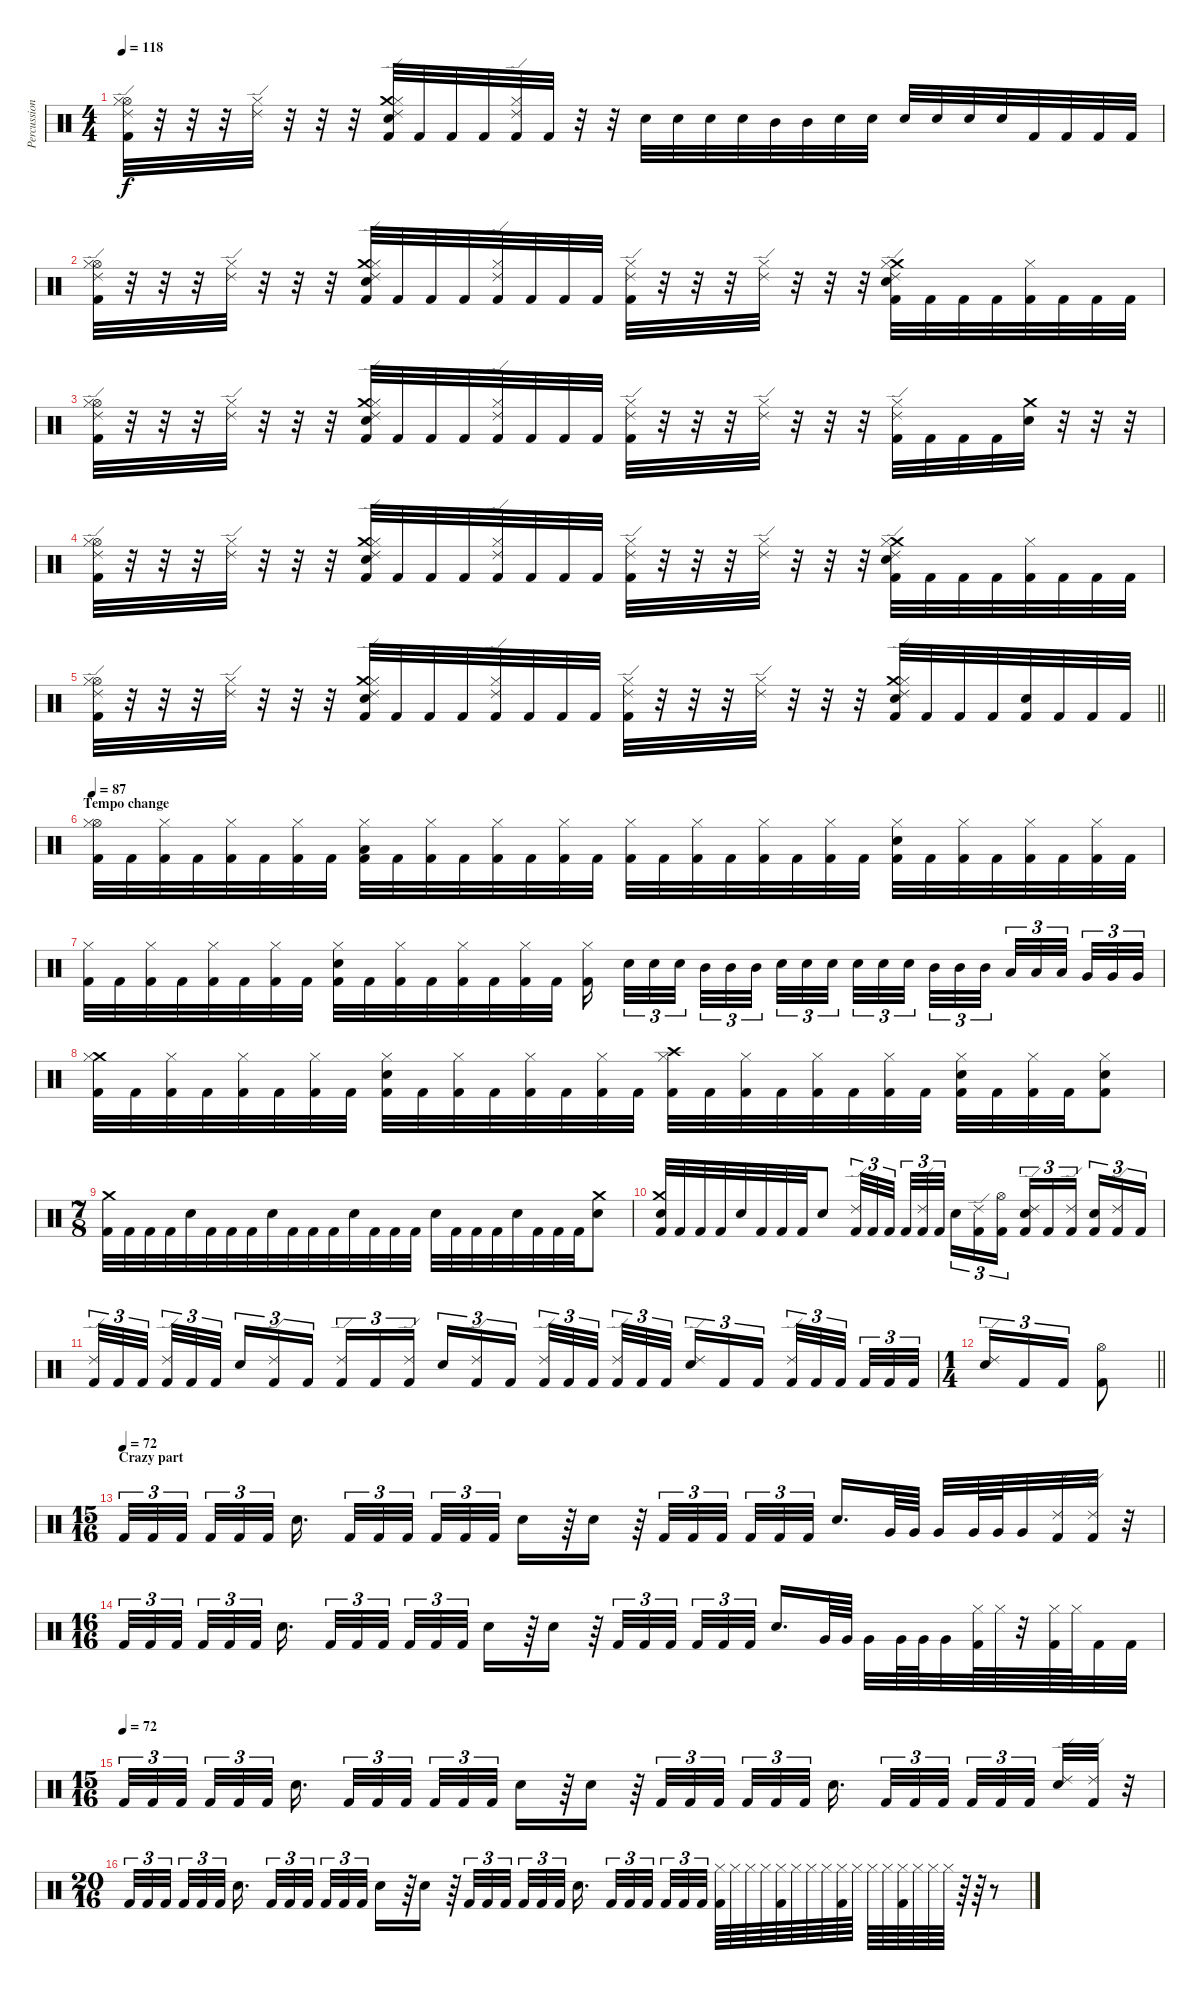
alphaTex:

\track ("Percussion" "Percussion") {instrument percussion}
\staff {score}
\articulation defaults
\ts (4 4)
\tempo 118
\clef neutral
\ks c
("Hi-Hat (open)" "Ride (edge) 2" "Hi-Hat (closed)" "Kick (hit) 2").32{dy f} r.32 r.32 r.32 ("Ride (edge) 2" "Hi-Hat (closed)").32 r.32 r.32 r.32 ("Crash medium (hit)" "Ride (edge) 2" "Hi-Hat (closed)" "Electric Snare (hit)" "Kick (hit) 2").32 "Kick (hit) 2".32 "Kick (hit) 2".32 "Kick (hit) 2".32 ("Ride (edge) 2" "Hi-Hat (closed)" "Kick (hit) 2").32 "Kick (hit) 2".32 r.32 r.32 "Electric Snare (hit)".32 "Electric Snare (hit)".32 "Electric Snare (hit)".32 "Electric Snare (hit)".32 "Mid Tom (hit)".32 "Mid Tom (hit)".32 "Electric Snare (hit)".32 "Electric Snare (hit)".32 "Electric Snare (hit)".32 "Electric Snare (hit)".32 "Electric Snare (hit)".32 "Electric Snare (hit)".32 "Kick (hit) 2".32 "Kick (hit) 2".32 "Kick (hit) 2".32 "Kick (hit) 2".32 |
("Hi-Hat (open)" "Ride (edge) 2" "Hi-Hat (closed)" "Kick (hit) 2").32 r.32 r.32 r.32 ("Ride (edge) 2" "Hi-Hat (closed)").32 r.32 r.32 r.32 ("Crash medium (hit)" "Ride (edge) 2" "Hi-Hat (closed)" "Electric Snare (hit)" "Kick (hit) 2").32 "Kick (hit) 2".32 "Kick (hit) 2".32 "Kick (hit) 2".32 ("Ride (edge) 2" "Hi-Hat (closed)" "Kick (hit) 2").32 "Kick (hit) 2".32 "Kick (hit) 2".32 "Kick (hit) 2".32 ("Ride (edge) 2" "Hi-Hat (closed)" "Kick (hit) 2").32 r.32 r.32 r.32 ("Ride (edge) 2" "Hi-Hat (closed)").32 r.32 r.32 r.32 ("Crash medium (hit)" "Ride (edge) 2" "Hi-Hat (closed)" "Electric Snare (hit)" "Kick (hit) 2").32 "Kick (hit) 2".32 "Kick (hit) 2".32 "Kick (hit) 2".32 ("Hi-Hat (closed)" "Kick (hit) 2").32 "Kick (hit) 2".32 "Kick (hit) 2".32 "Kick (hit) 2".32 |
("Hi-Hat (open)" "Ride (edge) 2" "Hi-Hat (closed)" "Kick (hit) 2").32 r.32 r.32 r.32 ("Ride (edge) 2" "Hi-Hat (closed)").32 r.32 r.32 r.32 ("Crash medium (hit)" "Ride (edge) 2" "Hi-Hat (closed)" "Electric Snare (hit)" "Kick (hit) 2").32 "Kick (hit) 2".32 "Kick (hit) 2".32 "Kick (hit) 2".32 ("Ride (edge) 2" "Hi-Hat (closed)" "Kick (hit) 2").32 "Kick (hit) 2".32 "Kick (hit) 2".32 "Kick (hit) 2".32 ("Ride (edge) 2" "Hi-Hat (closed)" "Kick (hit) 2").32 r.32 r.32 r.32 ("Ride (edge) 2" "Hi-Hat (closed)").32 r.32 r.32 r.32 ("Ride (edge) 2" "Hi-Hat (closed)" "Kick (hit) 2").32 "Kick (hit) 2".32 "Kick (hit) 2".32 "Kick (hit) 2".32 ("Crash medium (hit)" "Electric Snare (hit)").32 r.32 r.32 r.32 |
("Hi-Hat (open)" "Ride (edge) 2" "Hi-Hat (closed)" "Kick (hit) 2").32 r.32 r.32 r.32 ("Ride (edge) 2" "Hi-Hat (closed)").32 r.32 r.32 r.32 ("Crash medium (hit)" "Ride (edge) 2" "Hi-Hat (closed)" "Electric Snare (hit)" "Kick (hit) 2").32 "Kick (hit) 2".32 "Kick (hit) 2".32 "Kick (hit) 2".32 ("Ride (edge) 2" "Hi-Hat (closed)" "Kick (hit) 2").32 "Kick (hit) 2".32 "Kick (hit) 2".32 "Kick (hit) 2".32 ("Ride (edge) 2" "Hi-Hat (closed)" "Kick (hit) 2").32 r.32 r.32 r.32 ("Ride (edge) 2" "Hi-Hat (closed)").32 r.32 r.32 r.32 ("Crash medium (hit)" "Ride (edge) 2" "Hi-Hat (closed)" "Electric Snare (hit)" "Kick (hit) 2").32 "Kick (hit) 2".32 "Kick (hit) 2".32 "Kick (hit) 2".32 ("Hi-Hat (closed)" "Kick (hit) 2").32 "Kick (hit) 2".32 "Kick (hit) 2".32 "Kick (hit) 2".32 |
\barLineRight lightlight
("Hi-Hat (open)" "Ride (edge) 2" "Hi-Hat (closed)" "Kick (hit) 2").32 r.32 r.32 r.32 ("Ride (edge) 2" "Hi-Hat (closed)").32 r.32 r.32 r.32 ("Crash medium (hit)" "Ride (edge) 2" "Hi-Hat (closed)" "Electric Snare (hit)" "Kick (hit) 2").32 "Kick (hit) 2".32 "Kick (hit) 2".32 "Kick (hit) 2".32 ("Ride (edge) 2" "Hi-Hat (closed)" "Kick (hit) 2").32 "Kick (hit) 2".32 "Kick (hit) 2".32 "Kick (hit) 2".32 ("Ride (edge) 2" "Hi-Hat (closed)" "Kick (hit) 2").32 r.32 r.32 r.32 ("Ride (edge) 2" "Hi-Hat (closed)").32 r.32 r.32 r.32 ("Crash medium (hit)" "Ride (edge) 2" "Hi-Hat (closed)" "Electric Snare (hit)" "Kick (hit) 2").32 "Kick (hit) 2".32 "Kick (hit) 2".32 "Kick (hit) 2".32 ("Electric Snare (hit)" "Kick (hit) 2").32 "Kick (hit) 2".32 "Kick (hit) 2".32 "Kick (hit) 2".32 |
\section ("" "Tempo change")
\tempo 87
("Hi-Hat (open)" "Hi-Hat (closed)" "Kick (hit) 2").32 "Kick (hit) 2".32 ("Hi-Hat (closed)" "Kick (hit) 2").32 "Kick (hit) 2".32 ("Hi-Hat (closed)" "Kick (hit) 2").32 "Kick (hit) 2".32 ("Hi-Hat (closed)" "Kick (hit) 2").32 "Kick (hit) 2".32 ("Hi-Hat (closed)" "Low Tom (hit)" "Kick (hit) 2").32 "Kick (hit) 2".32 ("Hi-Hat (closed)" "Kick (hit) 2").32 "Kick (hit) 2".32 ("Hi-Hat (closed)" "Kick (hit) 2").32 "Kick (hit) 2".32 ("Hi-Hat (closed)" "Kick (hit) 2").32 "Kick (hit) 2".32 ("Hi-Hat (closed)" "Kick (hit) 2").32 "Kick (hit) 2".32 ("Hi-Hat (closed)" "Kick (hit) 2").32 "Kick (hit) 2".32 ("Hi-Hat (closed)" "Kick (hit) 2").32 "Kick (hit) 2".32 ("Hi-Hat (closed)" "Kick (hit) 2").32 "Kick (hit) 2".32 ("Hi-Hat (closed)" "Electric Snare (hit)" "Kick (hit) 2").32 "Kick (hit) 2".32 ("Hi-Hat (closed)" "Kick (hit) 2").32 "Kick (hit) 2".32 ("Hi-Hat (closed)" "Kick (hit) 2").32 "Kick (hit) 2".32 ("Hi-Hat (closed)" "Kick (hit) 2").32 "Kick (hit) 2".32 |
("Hi-Hat (closed)" "Kick (hit) 2").32 "Kick (hit) 2".32 ("Hi-Hat (closed)" "Kick (hit) 2").32 "Kick (hit) 2".32 ("Hi-Hat (closed)" "Kick (hit) 2").32 "Kick (hit) 2".32 ("Hi-Hat (closed)" "Kick (hit) 2").32 "Kick (hit) 2".32 ("Hi-Hat (closed)" "Electric Snare (hit)" "Kick (hit) 2").32 "Kick (hit) 2".32 ("Hi-Hat (closed)" "Kick (hit) 2").32 "Kick (hit) 2".32 ("Hi-Hat (closed)" "Kick (hit) 2").32 "Kick (hit) 2".32 ("Hi-Hat (closed)" "Kick (hit) 2").32 "Kick (hit) 2".32 ("Hi-Hat (closed)" "Kick (hit) 2").16{beam splitsecondary} "Electric Snare (hit)".32{tu (3 2)} "Electric Snare (hit)".32{tu (3 2)} "Electric Snare (hit)".32{tu (3 2) beam splitsecondary} "Mid Tom (hit)".32{tu (3 2)} "Mid Tom (hit)".32{tu (3 2)} "Mid Tom (hit)".32{tu (3 2) beam splitsecondary} "Electric Snare (hit)".32{tu (3 2)} "Electric Snare (hit)".32{tu (3 2)} "Electric Snare (hit)".32{tu (3 2)} "Electric Snare (hit)".32{tu (3 2)} "Electric Snare (hit)".32{tu (3 2)} "Electric Snare (hit)".32{tu (3 2) beam splitsecondary} "Mid Tom (hit)".32{tu (3 2)} "Mid Tom (hit)".32{tu (3 2)} "Mid Tom (hit)".32{tu (3 2) beam splitsecondary} "Low Tom (hit)".32{tu (3 2)} "Low Tom (hit)".32{tu (3 2)} "Low Tom (hit)".32{tu (3 2) beam splitsecondary} "Very Low Tom (hit)".32{tu (3 2)} "Very Low Tom (hit)".32{tu (3 2)} "Very Low Tom (hit)".32{tu (3 2)} |
("Crash medium (hit)" "Hi-Hat (closed)" "Kick (hit) 2").32 "Kick (hit) 2".32 ("Hi-Hat (closed)" "Kick (hit) 2").32 "Kick (hit) 2".32 ("Hi-Hat (closed)" "Kick (hit) 2").32 "Kick (hit) 2".32 ("Hi-Hat (closed)" "Kick (hit) 2").32 "Kick (hit) 2".32 ("Hi-Hat (closed)" "Electric Snare (hit)" "Kick (hit) 2").32 "Kick (hit) 2".32 ("Hi-Hat (closed)" "Kick (hit) 2").32 "Kick (hit) 2".32 ("Hi-Hat (closed)" "Kick (hit) 2").32 "Kick (hit) 2".32 ("Hi-Hat (closed)" "Kick (hit) 2").32 "Kick (hit) 2".32 ("Crash high (hit)" "Hi-Hat (closed)" "Kick (hit) 2").32 "Kick (hit) 2".32 ("Hi-Hat (closed)" "Kick (hit) 2").32 "Kick (hit) 2".32 ("Hi-Hat (closed)" "Kick (hit) 2").32 "Kick (hit) 2".32 ("Hi-Hat (closed)" "Kick (hit) 2").32 "Kick (hit) 2".32 ("Hi-Hat (closed)" "Electric Snare (hit)" "Kick (hit) 2").32 "Kick (hit) 2".32 ("Hi-Hat (closed)" "Kick (hit) 2").32 "Kick (hit) 2".32 ("Hi-Hat (closed)" "Electric Snare (hit)" "Kick (hit) 2").8 |
\ts (7 8)
("Crash medium (hit)" "Kick (hit) 2").32 "Kick (hit) 2".32 "Kick (hit) 2".32 "Kick (hit) 2".32 "Electric Snare (hit)".32 "Kick (hit) 2".32 "Kick (hit) 2".32 "Kick (hit) 2".32 "Electric Snare (hit)".32 "Kick (hit) 2".32 "Kick (hit) 2".32 "Kick (hit) 2".32 "Electric Snare (hit)".32 "Kick (hit) 2".32 "Kick (hit) 2".32 "Kick (hit) 2".32 "Electric Snare (hit)".32 "Kick (hit) 2".32 "Kick (hit) 2".32 "Kick (hit) 2".32 "Electric Snare (hit)".32 "Kick (hit) 2".32 "Kick (hit) 2".32 "Kick (hit) 2".32 ("Crash medium (hit)" "Electric Snare (hit)").8 |
("Crash medium (hit)" "Electric Snare (hit)" "Kick (hit) 2").32 "Kick (hit) 2".32 "Kick (hit) 2".32 "Kick (hit) 2".32 "Electric Snare (hit)".32 "Kick (hit) 2".32 "Kick (hit) 2".32 "Kick (hit) 2".32 "Electric Snare (hit)".8 ("Ride (edge) 2" "Kick (hit) 2").32{tu (3 2)} "Kick (hit) 2".32{tu (3 2)} "Kick (hit) 2".32{tu (3 2) beam splitsecondary} "Kick (hit) 2".32{tu (3 2)} ("Ride (edge) 2" "Kick (hit) 2").32{tu (3 2)} "Kick (hit) 2".32{tu (3 2)} "Electric Snare (hit)".16{tu (3 2)} ("Ride (edge) 2" "Kick (hit) 2").16{tu (3 2)} ("Hi-Hat (open)" "Kick (hit) 2").16{tu (3 2)} ("Ride (edge) 2" "Electric Snare (hit)" "Kick (hit) 2").16{tu (3 2)} "Kick (hit) 2".16{tu (3 2)} ("Ride (edge) 2" "Kick (hit) 2").16{tu (3 2)} ("Electric Snare (hit)" "Kick (hit) 2").16{tu (3 2)} ("Ride (edge) 2" "Kick (hit) 2").16{tu (3 2)} "Kick (hit) 2".16{tu (3 2)} |
("Ride (edge) 2" "Kick (hit) 2").32{tu (3 2)} "Kick (hit) 2".32{tu (3 2)} "Kick (hit) 2".32{tu (3 2) beam splitsecondary} ("Ride (edge) 2" "Kick (hit) 2").32{tu (3 2)} "Kick (hit) 2".32{tu (3 2)} "Kick (hit) 2".32{tu (3 2)} "Electric Snare (hit)".16{tu (3 2)} ("Ride (edge) 2" "Kick (hit) 2").16{tu (3 2)} "Kick (hit) 2".16{tu (3 2)} ("Ride (edge) 2" "Kick (hit) 2").16{tu (3 2)} "Kick (hit) 2".16{tu (3 2)} ("Ride (edge) 2" "Kick (hit) 2").16{tu (3 2)} "Electric Snare (hit)".16{tu (3 2)} ("Ride (edge) 2" "Kick (hit) 2").16{tu (3 2)} "Kick (hit) 2".16{tu (3 2)} ("Ride (edge) 2" "Kick (hit) 2").32{tu (3 2)} "Kick (hit) 2".32{tu (3 2)} "Kick (hit) 2".32{tu (3 2) beam splitsecondary} ("Ride (edge) 2" "Kick (hit) 2").32{tu (3 2)} "Kick (hit) 2".32{tu (3 2)} "Kick (hit) 2".32{tu (3 2)} ("Ride (edge) 2" "Electric Snare (hit)").16{tu (3 2)} "Kick (hit) 2".16{tu (3 2)} "Kick (hit) 2".16{tu (3 2)} ("Ride (edge) 2" "Kick (hit) 2").32{tu (3 2)} "Kick (hit) 2".32{tu (3 2)} "Kick (hit) 2".32{tu (3 2) beam splitsecondary} "Kick (hit) 2".32{tu (3 2)} "Kick (hit) 2".32{tu (3 2)} "Kick (hit) 2".32{tu (3 2)} |
\ts (1 4)
\barLineRight lightlight
("Ride (edge) 2" "Electric Snare (hit)").16{tu (3 2)} "Kick (hit) 2".16{tu (3 2)} "Kick (hit) 2".16{tu (3 2)} ("Hi-Hat (open)" "Kick (hit) 2").8 |
\ts (15 16)
\section ("" "Crazy part")
\tempo (72)
"Kick (hit) 2".32{tu (3 2)} "Kick (hit) 2".32{tu (3 2)} "Kick (hit) 2".32{tu (3 2) beam splitsecondary} "Kick (hit) 2".32{tu (3 2)} "Kick (hit) 2".32{tu (3 2)} "Kick (hit) 2".32{tu (3 2) beam splitsecondary} "Electric Snare (hit)".16{d} "Kick (hit) 2".32{tu (3 2)} "Kick (hit) 2".32{tu (3 2)} "Kick (hit) 2".32{tu (3 2) beam splitsecondary} "Kick (hit) 2".32{tu (3 2)} "Kick (hit) 2".32{tu (3 2)} "Kick (hit) 2".32{tu (3 2) beam splitsecondary} "Electric Snare (hit)".16 r.64 "Electric Snare (hit)".16 r.64 "Kick (hit) 2".32{tu (3 2)} "Kick (hit) 2".32{tu (3 2)} "Kick (hit) 2".32{tu (3 2)} "Kick (hit) 2".32{tu (3 2)} "Kick (hit) 2".32{tu (3 2)} "Kick (hit) 2".32{tu (3 2) beam splitsecondary} "Electric Snare (hit)".16{d} "Very Low Tom (hit)".64 "Very Low Tom (hit)".64 "Very Low Tom (hit)".32 "Very Low Tom (hit)".64 "Very Low Tom (hit)".64 "Very Low Tom (hit)".32 ("Ride (edge) 2" "Kick (hit) 2").32 ("Ride (edge) 2" "Kick (hit) 2").32 r.32 |
\ts (16 16)
"Kick (hit) 2".32{tu (3 2)} "Kick (hit) 2".32{tu (3 2)} "Kick (hit) 2".32{tu (3 2)} "Kick (hit) 2".32{tu (3 2)} "Kick (hit) 2".32{tu (3 2)} "Kick (hit) 2".32{tu (3 2)} "Electric Snare (hit)".16{d} "Kick (hit) 2".32{tu (3 2)} "Kick (hit) 2".32{tu (3 2)} "Kick (hit) 2".32{tu (3 2) beam splitsecondary} "Kick (hit) 2".32{tu (3 2)} "Kick (hit) 2".32{tu (3 2)} "Kick (hit) 2".32{tu (3 2)} "Electric Snare (hit)".16 r.64 "Electric Snare (hit)".16 r.64 "Kick (hit) 2".32{tu (3 2)} "Kick (hit) 2".32{tu (3 2)} "Kick (hit) 2".32{tu (3 2)} "Kick (hit) 2".32{tu (3 2)} "Kick (hit) 2".32{tu (3 2)} "Kick (hit) 2".32{tu (3 2)} "Electric Snare (hit)".16{d} "Very Low Tom (hit)".64 "Very Low Tom (hit)".64 "Very Low Tom (hit)".32 "Very Low Tom (hit)".64 "Very Low Tom (hit)".64 "Very Low Tom (hit)".32 ("Hi-Hat (closed)" "Kick (hit) 2").64 "Hi-Hat (closed)".64 r.32 ("Hi-Hat (closed)" "Kick (hit) 2").64 "Hi-Hat (closed)".64 "Kick (hit) 2".32 "Kick (hit) 2".32 |
\ts (15 16)
\tempo (72)
"Kick (hit) 2".32{tu (3 2)} "Kick (hit) 2".32{tu (3 2)} "Kick (hit) 2".32{tu (3 2) beam splitsecondary} "Kick (hit) 2".32{tu (3 2)} "Kick (hit) 2".32{tu (3 2)} "Kick (hit) 2".32{tu (3 2) beam splitsecondary} "Electric Snare (hit)".16{d} "Kick (hit) 2".32{tu (3 2)} "Kick (hit) 2".32{tu (3 2)} "Kick (hit) 2".32{tu (3 2) beam splitsecondary} "Kick (hit) 2".32{tu (3 2)} "Kick (hit) 2".32{tu (3 2)} "Kick (hit) 2".32{tu (3 2) beam splitsecondary} "Electric Snare (hit)".16 r.64 "Electric Snare (hit)".16 r.64 "Kick (hit) 2".32{tu (3 2)} "Kick (hit) 2".32{tu (3 2)} "Kick (hit) 2".32{tu (3 2)} "Kick (hit) 2".32{tu (3 2)} "Kick (hit) 2".32{tu (3 2)} "Kick (hit) 2".32{tu (3 2) beam splitsecondary} "Electric Snare (hit)".16{d beam splitsecondary} "Kick (hit) 2".32{tu (3 2)} "Kick (hit) 2".32{tu (3 2)} "Kick (hit) 2".32{tu (3 2) beam splitsecondary} "Kick (hit) 2".32{tu (3 2)} "Kick (hit) 2".32{tu (3 2)} "Kick (hit) 2".32{tu (3 2) beam splitsecondary} ("Ride (edge) 2" "Electric Snare (hit)").32 ("Ride (edge) 2" "Kick (hit) 2").32 r.32 |
\ts (20 16)
"Kick (hit) 2".32{tu (3 2)} "Kick (hit) 2".32{tu (3 2)} "Kick (hit) 2".32{tu (3 2)} "Kick (hit) 2".32{tu (3 2)} "Kick (hit) 2".32{tu (3 2)} "Kick (hit) 2".32{tu (3 2)} "Electric Snare (hit)".16{d} "Kick (hit) 2".32{tu (3 2)} "Kick (hit) 2".32{tu (3 2)} "Kick (hit) 2".32{tu (3 2) beam splitsecondary} "Kick (hit) 2".32{tu (3 2)} "Kick (hit) 2".32{tu (3 2)} "Kick (hit) 2".32{tu (3 2)} "Electric Snare (hit)".16 r.64 "Electric Snare (hit)".16 r.64 "Kick (hit) 2".32{tu (3 2)} "Kick (hit) 2".32{tu (3 2)} "Kick (hit) 2".32{tu (3 2)} "Kick (hit) 2".32{tu (3 2)} "Kick (hit) 2".32{tu (3 2)} "Kick (hit) 2".32{tu (3 2)} "Electric Snare (hit)".16{d} "Kick (hit) 2".32{tu (3 2)} "Kick (hit) 2".32{tu (3 2)} "Kick (hit) 2".32{tu (3 2) beam splitsecondary} "Kick (hit) 2".32{tu (3 2)} "Kick (hit) 2".32{tu (3 2)} "Kick (hit) 2".32{tu (3 2) beam splitsecondary} ("Hi-Hat (closed)" "Kick (hit) 2").64 "Hi-Hat (closed)".64 "Hi-Hat (closed)".64 "Hi-Hat (closed)".64 ("Hi-Hat (closed)" "Kick (hit) 2").64 "Hi-Hat (closed)".64 "Hi-Hat (closed)".64 "Hi-Hat (closed)".64 ("Hi-Hat (closed)" "Kick (hit) 2").64 "Hi-Hat (closed)".64 "Hi-Hat (closed)".64 "Hi-Hat (closed)".64 ("Hi-Hat (closed)" "Kick (hit) 2").64 "Hi-Hat (closed)".64 "Hi-Hat (closed)".64 "Hi-Hat (closed)".64 r.64 r.64 r.8
